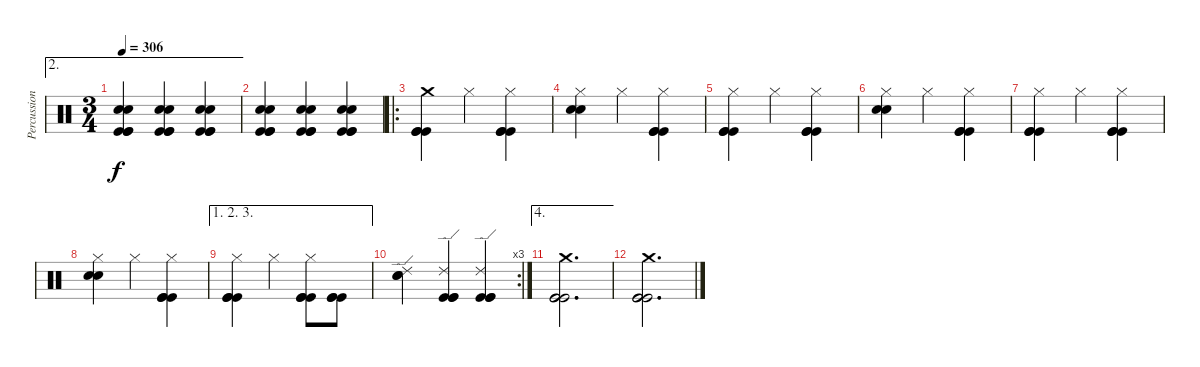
\track ("Percussion" "Percussion") {instrument percussion}
\staff {score}
\articulation defaults
\ae 2
\ts (3 4)
\tempo 306
\clef neutral
\ks c
("Electric Snare (hit)" "Snare (hit) 2" "Kick (hit)" "Kick (hit)" "Kick (hit)").4{dy f} ("Electric Snare (hit)" "Snare (hit) 2" "Kick (hit)" "Kick (hit)" "Kick (hit)").4 ("Electric Snare (hit)" "Snare (hit) 2" "Kick (hit)" "Kick (hit)" "Kick (hit)").4 |
("Electric Snare (hit)" "Snare (hit) 2" "Kick (hit)" "Kick (hit)" "Kick (hit)").4 ("Electric Snare (hit)" "Snare (hit) 2" "Kick (hit)" "Kick (hit)" "Kick (hit)").4 ("Electric Snare (hit)" "Snare (hit) 2" "Kick (hit)" "Kick (hit)" "Kick (hit)").4 |
\ro
("Crash medium (hit)" "Kick (hit)" "Kick (hit)" "Kick (hit)").4 "Hi-Hat (closed)".4 ("Hi-Hat (closed)" "Kick (hit)" "Kick (hit)" "Kick (hit)").4 |
("Hi-Hat (closed)" "Electric Snare (hit)" "Snare (hit) 2").4 "Hi-Hat (closed)".4 ("Hi-Hat (closed)" "Kick (hit)" "Kick (hit)" "Kick (hit)").4 |
("Hi-Hat (closed)" "Kick (hit)" "Kick (hit)" "Kick (hit)").4 "Hi-Hat (closed)".4 ("Hi-Hat (closed)" "Kick (hit)" "Kick (hit)" "Kick (hit)").4 |
("Hi-Hat (closed)" "Electric Snare (hit)" "Snare (hit) 2").4 "Hi-Hat (closed)".4 ("Hi-Hat (closed)" "Kick (hit)" "Kick (hit)" "Kick (hit)").4 |
("Hi-Hat (closed)" "Kick (hit)" "Kick (hit)" "Kick (hit)").4 "Hi-Hat (closed)".4 ("Hi-Hat (closed)" "Kick (hit)" "Kick (hit)" "Kick (hit)").4 |
("Hi-Hat (closed)" "Electric Snare (hit)" "Snare (hit) 2").4 "Hi-Hat (closed)".4 ("Hi-Hat (closed)" "Kick (hit)" "Kick (hit)" "Kick (hit)").4 |
\ae (1 2 3)
("Hi-Hat (closed)" "Kick (hit)" "Kick (hit)" "Kick (hit)").4 "Hi-Hat (closed)".4 ("Hi-Hat (closed)" "Kick (hit)" "Kick (hit)" "Kick (hit)").8 ("Kick (hit)" "Kick (hit)" "Kick (hit)").8 |
\rc 3
("Ride (edge) 2" "Snare (hit) 2" "Electric Snare (hit)").4 ("Ride (edge) 2" "Kick (hit)" "Kick (hit)" "Kick (hit)").4 ("Ride (edge) 2" "Kick (hit)" "Kick (hit)" "Kick (hit)").4 |
\ae 4
("Crash medium (hit)" "Kick (hit)" "Kick (hit)" "Kick (hit)").2{d} |
("Crash medium (hit)" "Kick (hit)" "Kick (hit)" "Kick (hit)").2{d}
